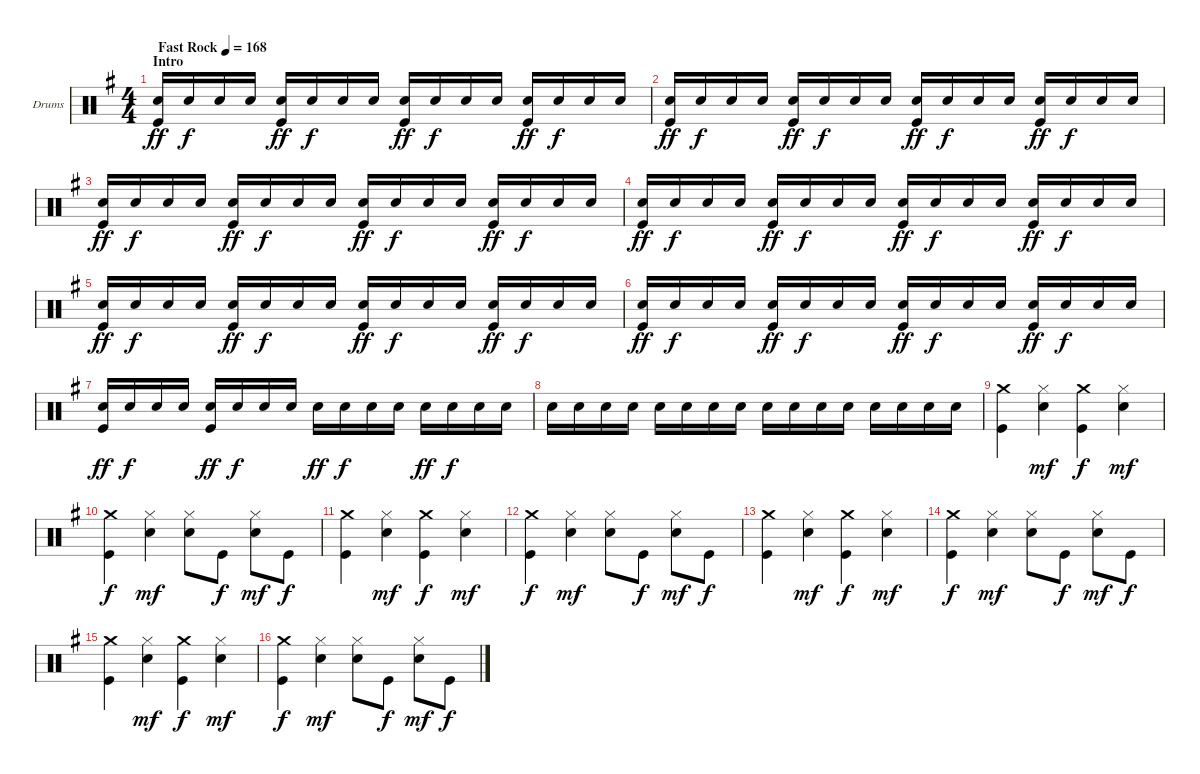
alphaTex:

\defaultSystemsLayout 4
\bracketExtendMode groupsimilarinstruments
\firstSystemTrackNameOrientation horizontal
\otherSystemsTrackNameOrientation horizontal
\track ("Drumkit" "Drums") {instrument percussion}
\staff {score}
\articulation defaults
\ts (4 4)
\section ("" "Intro")
\tempo (168 "Fast Rock")
\clef neutral
\ks g
("Snare (hit) 2" "Kick (hit)").16{dy ff} "Snare (hit) 2".16{dy f} "Snare (hit) 2".16 "Snare (hit) 2".16 ("Snare (hit) 2" "Kick (hit)").16{dy ff} "Snare (hit) 2".16{dy f} "Snare (hit) 2".16 "Snare (hit) 2".16 ("Snare (hit) 2" "Kick (hit)").16{dy ff} "Snare (hit) 2".16{dy f} "Snare (hit) 2".16 "Snare (hit) 2".16 ("Snare (hit) 2" "Kick (hit)").16{dy ff} "Snare (hit) 2".16{dy f} "Snare (hit) 2".16 "Snare (hit) 2".16 |
("Snare (hit) 2" "Kick (hit)").16{dy ff} "Snare (hit) 2".16{dy f} "Snare (hit) 2".16 "Snare (hit) 2".16 ("Snare (hit) 2" "Kick (hit)").16{dy ff} "Snare (hit) 2".16{dy f} "Snare (hit) 2".16 "Snare (hit) 2".16 ("Snare (hit) 2" "Kick (hit)").16{dy ff} "Snare (hit) 2".16{dy f} "Snare (hit) 2".16 "Snare (hit) 2".16 ("Snare (hit) 2" "Kick (hit)").16{dy ff} "Snare (hit) 2".16{dy f} "Snare (hit) 2".16 "Snare (hit) 2".16 |
("Snare (hit) 2" "Kick (hit)").16{dy ff} "Snare (hit) 2".16{dy f} "Snare (hit) 2".16 "Snare (hit) 2".16 ("Snare (hit) 2" "Kick (hit)").16{dy ff} "Snare (hit) 2".16{dy f} "Snare (hit) 2".16 "Snare (hit) 2".16 ("Snare (hit) 2" "Kick (hit)").16{dy ff} "Snare (hit) 2".16{dy f} "Snare (hit) 2".16 "Snare (hit) 2".16 ("Snare (hit) 2" "Kick (hit)").16{dy ff} "Snare (hit) 2".16{dy f} "Snare (hit) 2".16 "Snare (hit) 2".16 |
("Snare (hit) 2" "Kick (hit)").16{dy ff} "Snare (hit) 2".16{dy f} "Snare (hit) 2".16 "Snare (hit) 2".16 ("Snare (hit) 2" "Kick (hit)").16{dy ff} "Snare (hit) 2".16{dy f} "Snare (hit) 2".16 "Snare (hit) 2".16 ("Snare (hit) 2" "Kick (hit)").16{dy ff} "Snare (hit) 2".16{dy f} "Snare (hit) 2".16 "Snare (hit) 2".16 ("Snare (hit) 2" "Kick (hit)").16{dy ff} "Snare (hit) 2".16{dy f} "Snare (hit) 2".16 "Snare (hit) 2".16 |
("Snare (hit) 2" "Kick (hit)").16{dy ff} "Snare (hit) 2".16{dy f} "Snare (hit) 2".16 "Snare (hit) 2".16 ("Snare (hit) 2" "Kick (hit)").16{dy ff} "Snare (hit) 2".16{dy f} "Snare (hit) 2".16 "Snare (hit) 2".16 ("Snare (hit) 2" "Kick (hit)").16{dy ff} "Snare (hit) 2".16{dy f} "Snare (hit) 2".16 "Snare (hit) 2".16 ("Snare (hit) 2" "Kick (hit)").16{dy ff} "Snare (hit) 2".16{dy f} "Snare (hit) 2".16 "Snare (hit) 2".16 |
("Snare (hit) 2" "Kick (hit)").16{dy ff} "Snare (hit) 2".16{dy f} "Snare (hit) 2".16 "Snare (hit) 2".16 ("Snare (hit) 2" "Kick (hit)").16{dy ff} "Snare (hit) 2".16{dy f} "Snare (hit) 2".16 "Snare (hit) 2".16 ("Snare (hit) 2" "Kick (hit)").16{dy ff} "Snare (hit) 2".16{dy f} "Snare (hit) 2".16 "Snare (hit) 2".16 ("Snare (hit) 2" "Kick (hit)").16{dy ff} "Snare (hit) 2".16{dy f} "Snare (hit) 2".16 "Snare (hit) 2".16 |
("Snare (hit) 2" "Kick (hit)").16{dy ff} "Snare (hit) 2".16{dy f} "Snare (hit) 2".16 "Snare (hit) 2".16 ("Snare (hit) 2" "Kick (hit)").16{dy ff} "Snare (hit) 2".16{dy f} "Snare (hit) 2".16 "Snare (hit) 2".16 "Snare (hit) 2".16{dy ff} "Snare (hit) 2".16{dy f} "Snare (hit) 2".16 "Snare (hit) 2".16 "Snare (hit) 2".16{dy ff} "Snare (hit) 2".16{dy f} "Snare (hit) 2".16 "Snare (hit) 2".16 |
"Snare (hit) 2".16 "Snare (hit) 2".16 "Snare (hit) 2".16 "Snare (hit) 2".16 "Snare (hit) 2".16 "Snare (hit) 2".16 "Snare (hit) 2".16 "Snare (hit) 2".16 "Snare (hit) 2".16 "Snare (hit) 2".16 "Snare (hit) 2".16 "Snare (hit) 2".16 "Snare (hit) 2".16 "Snare (hit) 2".16 "Snare (hit) 2".16 "Snare (hit) 2".16 |
("Crash medium (hit)" "Kick (hit)").4 ("Hi-Hat (closed)" "Snare (hit) 2").4{dy mf} ("Crash medium (hit)" "Kick (hit)").4{dy f} ("Hi-Hat (closed)" "Snare (hit) 2").4{dy mf} |
("Crash medium (hit)" "Kick (hit)").4{dy f} ("Hi-Hat (closed)" "Snare (hit) 2").4{dy mf} ("Hi-Hat (closed)" "Snare (hit) 2").8 "Kick (hit)".8{dy f} ("Hi-Hat (closed)" "Snare (hit) 2").8{dy mf} "Kick (hit)".8{dy f} |
("Crash medium (hit)" "Kick (hit)").4 ("Hi-Hat (closed)" "Snare (hit) 2").4{dy mf} ("Crash medium (hit)" "Kick (hit)").4{dy f} ("Hi-Hat (closed)" "Snare (hit) 2").4{dy mf} |
("Crash medium (hit)" "Kick (hit)").4{dy f} ("Hi-Hat (closed)" "Snare (hit) 2").4{dy mf} ("Hi-Hat (closed)" "Snare (hit) 2").8 "Kick (hit)".8{dy f} ("Hi-Hat (closed)" "Snare (hit) 2").8{dy mf} "Kick (hit)".8{dy f} |
("Crash medium (hit)" "Kick (hit)").4 ("Hi-Hat (closed)" "Snare (hit) 2").4{dy mf} ("Crash medium (hit)" "Kick (hit)").4{dy f} ("Hi-Hat (closed)" "Snare (hit) 2").4{dy mf} |
("Crash medium (hit)" "Kick (hit)").4{dy f} ("Hi-Hat (closed)" "Snare (hit) 2").4{dy mf} ("Hi-Hat (closed)" "Snare (hit) 2").8 "Kick (hit)".8{dy f} ("Hi-Hat (closed)" "Snare (hit) 2").8{dy mf} "Kick (hit)".8{dy f} |
("Crash medium (hit)" "Kick (hit)").4 ("Hi-Hat (closed)" "Snare (hit) 2").4{dy mf} ("Crash medium (hit)" "Kick (hit)").4{dy f} ("Hi-Hat (closed)" "Snare (hit) 2").4{dy mf} |
("Crash medium (hit)" "Kick (hit)").4{dy f} ("Hi-Hat (closed)" "Snare (hit) 2").4{dy mf} ("Hi-Hat (closed)" "Snare (hit) 2").8 "Kick (hit)".8{dy f} ("Hi-Hat (closed)" "Snare (hit) 2").8{dy mf} "Kick (hit)".8{dy f}
